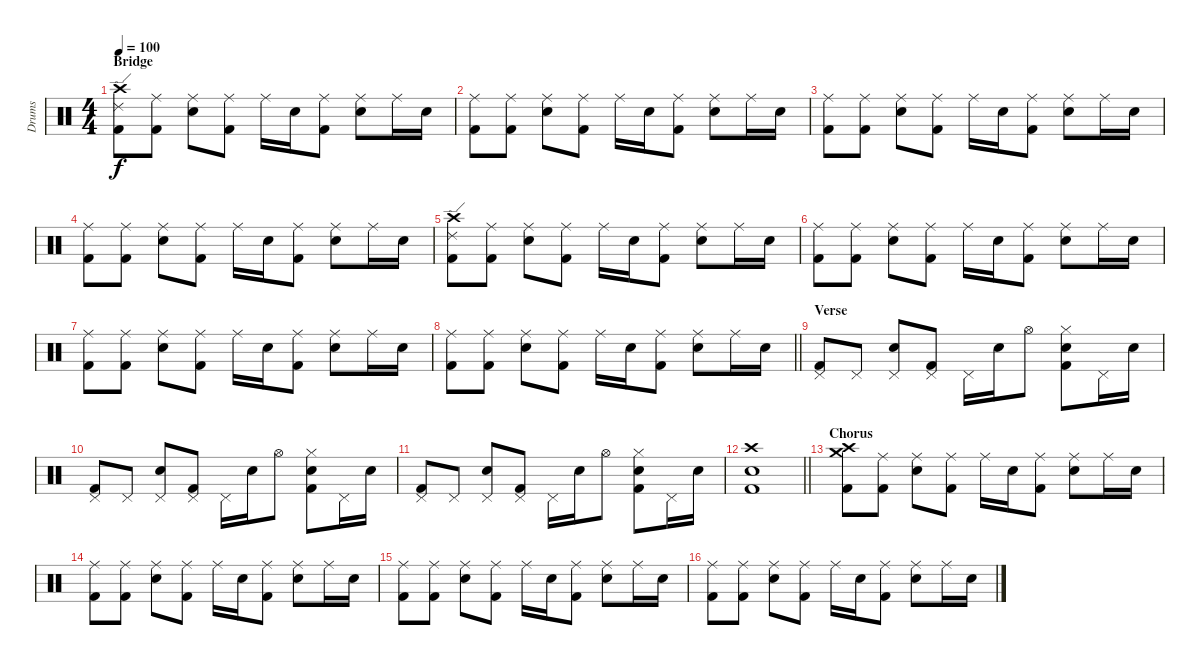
\track ("Drums" "Drums") {instrument percussion}
\staff {score}
\articulation defaults
\ts (4 4)
\section ("" "Bridge")
\tempo 100
\clef neutral
\ks c
("Crash high (hit)" "Ride (edge) 2" "Kick (hit) 2").8{dy f} ("Ride (middle)" "Kick (hit) 2").8 ("Electric Snare (hit)" "Ride (middle)").8 ("Ride (middle)" "Kick (hit) 2").8 "Ride (middle)".16 "Electric Snare (hit)".16 ("Ride (middle)" "Kick (hit) 2").8 ("Electric Snare (hit)" "Ride (middle)").8 "Ride (middle)".16 "Electric Snare (hit)".16 |
("Ride (middle)" "Kick (hit) 2").8 ("Ride (middle)" "Kick (hit) 2").8 ("Electric Snare (hit)" "Ride (middle)").8 ("Ride (middle)" "Kick (hit) 2").8 "Ride (middle)".16 "Electric Snare (hit)".16 ("Ride (middle)" "Kick (hit) 2").8 ("Electric Snare (hit)" "Ride (middle)").8 "Ride (middle)".16 "Electric Snare (hit)".16 |
("Ride (middle)" "Kick (hit) 2").8 ("Ride (middle)" "Kick (hit) 2").8 ("Electric Snare (hit)" "Ride (middle)").8 ("Ride (middle)" "Kick (hit) 2").8 "Ride (middle)".16 "Electric Snare (hit)".16 ("Ride (middle)" "Kick (hit) 2").8 ("Electric Snare (hit)" "Ride (middle)").8 "Ride (middle)".16 "Electric Snare (hit)".16 |
("Ride (middle)" "Kick (hit) 2").8 ("Ride (middle)" "Kick (hit) 2").8 ("Electric Snare (hit)" "Ride (middle)").8 ("Ride (middle)" "Kick (hit) 2").8 "Ride (middle)".16 "Electric Snare (hit)".16 ("Ride (middle)" "Kick (hit) 2").8 ("Electric Snare (hit)" "Ride (middle)").8 "Ride (middle)".16 "Electric Snare (hit)".16 |
("Crash high (hit)" "Ride (edge) 2" "Kick (hit) 2").8 ("Ride (middle)" "Kick (hit) 2").8 ("Electric Snare (hit)" "Ride (middle)").8 ("Ride (middle)" "Kick (hit) 2").8 "Ride (middle)".16 "Electric Snare (hit)".16 ("Ride (middle)" "Kick (hit) 2").8 ("Electric Snare (hit)" "Ride (middle)").8 "Ride (middle)".16 "Electric Snare (hit)".16 |
("Ride (middle)" "Kick (hit) 2").8 ("Ride (middle)" "Kick (hit) 2").8 ("Electric Snare (hit)" "Ride (middle)").8 ("Ride (middle)" "Kick (hit) 2").8 "Ride (middle)".16 "Electric Snare (hit)".16 ("Ride (middle)" "Kick (hit) 2").8 ("Electric Snare (hit)" "Ride (middle)").8 "Ride (middle)".16 "Electric Snare (hit)".16 |
("Ride (middle)" "Kick (hit) 2").8 ("Ride (middle)" "Kick (hit) 2").8 ("Electric Snare (hit)" "Ride (middle)").8 ("Ride (middle)" "Kick (hit) 2").8 "Ride (middle)".16 "Electric Snare (hit)".16 ("Ride (middle)" "Kick (hit) 2").8 ("Electric Snare (hit)" "Ride (middle)").8 "Ride (middle)".16 "Electric Snare (hit)".16 |
\barLineRight lightlight
("Ride (middle)" "Kick (hit) 2").8 ("Ride (middle)" "Kick (hit) 2").8 ("Electric Snare (hit)" "Ride (middle)").8 ("Ride (middle)" "Kick (hit) 2").8 "Ride (middle)".16 "Electric Snare (hit)".16 ("Ride (middle)" "Kick (hit) 2").8 ("Electric Snare (hit)" "Ride (middle)").8 "Ride (middle)".16 "Electric Snare (hit)".16 |
\section ("" "Verse")
("Pedal Hi-Hat (hit)" "Kick (hit) 2").8 "Pedal Hi-Hat (hit)".8 ("Electric Snare (hit)" "Pedal Hi-Hat (hit)").8 ("Pedal Hi-Hat (hit)" "Kick (hit) 2").8 "Pedal Hi-Hat (hit)".16 "Electric Snare (hit)".16 "Hi-Hat (open)".8 ("Electric Snare (hit)" "Hi-Hat (closed)" "Kick (hit) 2").8 "Pedal Hi-Hat (hit)".16 "Electric Snare (hit)".16 |
("Pedal Hi-Hat (hit)" "Kick (hit) 2").8 "Pedal Hi-Hat (hit)".8 ("Electric Snare (hit)" "Pedal Hi-Hat (hit)").8 ("Pedal Hi-Hat (hit)" "Kick (hit) 2").8 "Pedal Hi-Hat (hit)".16 "Electric Snare (hit)".16 "Hi-Hat (open)".8 ("Electric Snare (hit)" "Hi-Hat (closed)" "Kick (hit) 2").8 "Pedal Hi-Hat (hit)".16 "Electric Snare (hit)".16 |
("Pedal Hi-Hat (hit)" "Kick (hit) 2").8 "Pedal Hi-Hat (hit)".8 ("Electric Snare (hit)" "Pedal Hi-Hat (hit)").8 ("Pedal Hi-Hat (hit)" "Kick (hit) 2").8 "Pedal Hi-Hat (hit)".16 "Electric Snare (hit)".16 "Hi-Hat (open)".8 ("Electric Snare (hit)" "Hi-Hat (closed)" "Kick (hit) 2").8 "Pedal Hi-Hat (hit)".16 "Electric Snare (hit)".16 |
\barLineRight lightlight
("Electric Snare (hit)" "Crash high (hit)" "Kick (hit) 2").1 |
\section ("" "Chorus")
("Crash high (hit)" "Crash medium (hit)" "Kick (hit) 2").8 ("Ride (middle)" "Kick (hit) 2").8 ("Electric Snare (hit)" "Ride (middle)").8 ("Ride (middle)" "Kick (hit) 2").8 "Ride (middle)".16 "Electric Snare (hit)".16 ("Ride (middle)" "Kick (hit) 2").8 ("Electric Snare (hit)" "Ride (middle)").8 "Ride (middle)".16 "Electric Snare (hit)".16 |
("Ride (middle)" "Kick (hit) 2").8 ("Ride (middle)" "Kick (hit) 2").8 ("Electric Snare (hit)" "Ride (middle)").8 ("Ride (middle)" "Kick (hit) 2").8 "Ride (middle)".16 "Electric Snare (hit)".16 ("Ride (middle)" "Kick (hit) 2").8 ("Electric Snare (hit)" "Ride (middle)").8 "Ride (middle)".16 "Electric Snare (hit)".16 |
("Ride (middle)" "Kick (hit) 2").8 ("Ride (middle)" "Kick (hit) 2").8 ("Electric Snare (hit)" "Ride (middle)").8 ("Ride (middle)" "Kick (hit) 2").8 "Ride (middle)".16 "Electric Snare (hit)".16 ("Ride (middle)" "Kick (hit) 2").8 ("Electric Snare (hit)" "Ride (middle)").8 "Ride (middle)".16 "Electric Snare (hit)".16 |
("Ride (middle)" "Kick (hit) 2").8 ("Ride (middle)" "Kick (hit) 2").8 ("Electric Snare (hit)" "Ride (middle)").8 ("Ride (middle)" "Kick (hit) 2").8 "Ride (middle)".16 "Electric Snare (hit)".16 ("Ride (middle)" "Kick (hit) 2").8 ("Electric Snare (hit)" "Ride (middle)").8 "Ride (middle)".16 "Electric Snare (hit)".16
